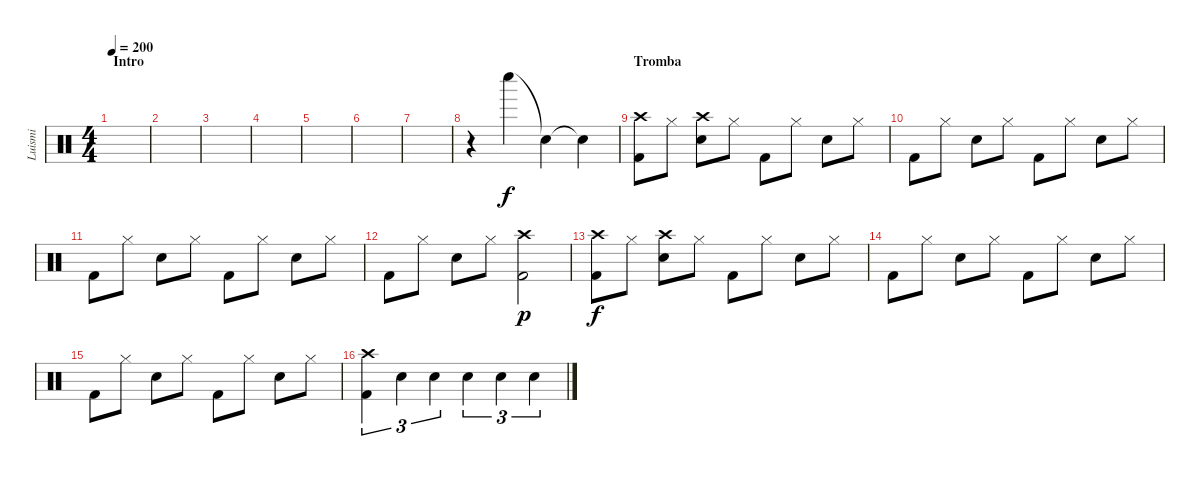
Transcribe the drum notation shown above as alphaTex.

\track ("Luismi" "Luismi") {instrument percussion}
\staff {score}
\articulation defaults
\ts (4 4)
\section ("" "Intro")
\tempo 200
\clef neutral
\ks c
|
|
|
|
|
|
|
r.4 "Whistle low (hit)".4 "Snare (hit)"{t}.4 "Snare (hit)"{t}.4 |
\section ("" "Tromba")
("Kick (hit) 2" "Crash high (hit)").8 "Hi-Hat (closed)".8 ("Electric Snare (hit)" "Crash high (hit)").8 "Hi-Hat (closed)".8 "Kick (hit) 2".8 "Hi-Hat (closed)".8 "Electric Snare (hit)".8 "Hi-Hat (closed)".8 |
"Kick (hit) 2".8 "Hi-Hat (closed)".8 "Electric Snare (hit)".8 "Hi-Hat (closed)".8 "Kick (hit) 2".8 "Hi-Hat (closed)".8 "Electric Snare (hit)".8 "Hi-Hat (closed)".8 |
"Kick (hit) 2".8 "Hi-Hat (closed)".8 "Electric Snare (hit)".8 "Hi-Hat (closed)".8 "Kick (hit) 2".8 "Hi-Hat (closed)".8 "Electric Snare (hit)".8 "Hi-Hat (closed)".8 |
"Kick (hit) 2".8 "Hi-Hat (closed)".8 "Electric Snare (hit)".8 "Hi-Hat (closed)".8 ("Kick (hit) 2" "Crash high (hit)").2{dy p} |
("Kick (hit) 2" "Crash high (hit)").8{dy f} "Hi-Hat (closed)".8 ("Electric Snare (hit)" "Crash high (hit)").8 "Hi-Hat (closed)".8 "Kick (hit) 2".8 "Hi-Hat (closed)".8 "Electric Snare (hit)".8 "Hi-Hat (closed)".8 |
"Kick (hit) 2".8 "Hi-Hat (closed)".8 "Electric Snare (hit)".8 "Hi-Hat (closed)".8 "Kick (hit) 2".8 "Hi-Hat (closed)".8 "Electric Snare (hit)".8 "Hi-Hat (closed)".8 |
"Kick (hit) 2".8 "Hi-Hat (closed)".8 "Electric Snare (hit)".8 "Hi-Hat (closed)".8 "Kick (hit) 2".8 "Hi-Hat (closed)".8 "Electric Snare (hit)".8 "Hi-Hat (closed)".8 |
("Kick (hit) 2" "Crash high (hit)").4{tu (3 2)} "Electric Snare (hit)".4{tu (3 2)} "Electric Snare (hit)".4{tu (3 2)} "Electric Snare (hit)".4{tu (3 2)} "Electric Snare (hit)".4{tu (3 2)} "Electric Snare (hit)".4{tu (3 2)}
